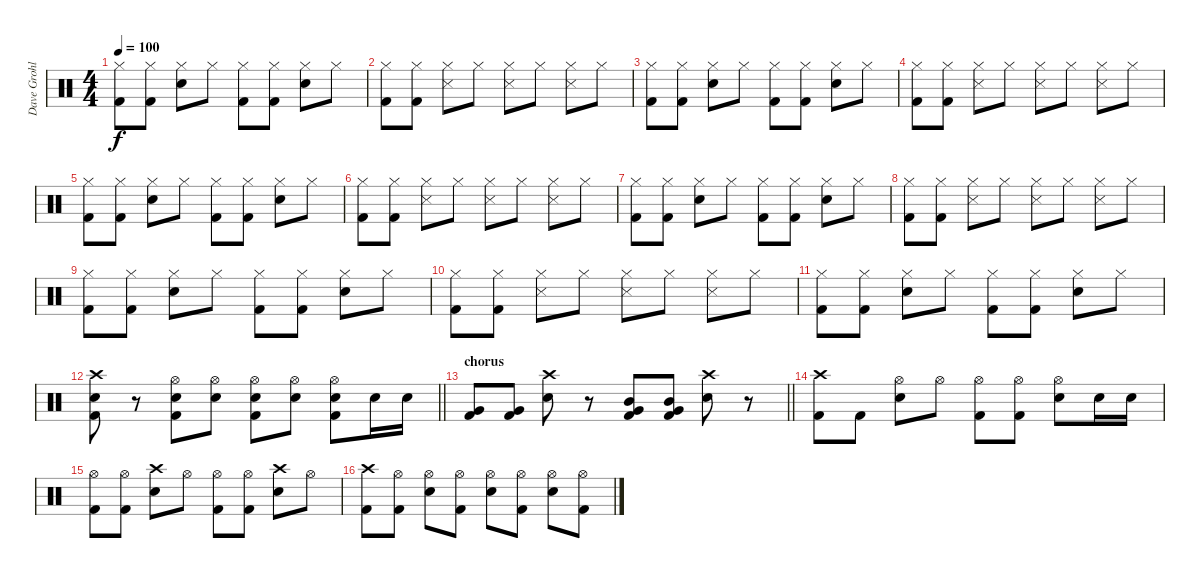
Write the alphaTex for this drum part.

\track ("Dave Grohl" "Dave Grohl") {instrument percussion}
\staff {score}
\articulation defaults
\ts (4 4)
\tempo 100
\clef neutral
\ks c
("Hi-Hat (closed)" "Kick (hit) 2").8{dy f} ("Hi-Hat (closed)" "Kick (hit) 2").8 ("Hi-Hat (closed)" "Snare (hit) 2").8 "Hi-Hat (closed)".8 ("Hi-Hat (closed)" "Kick (hit) 2").8 ("Hi-Hat (closed)" "Kick (hit) 2").8 ("Hi-Hat (closed)" "Snare (hit) 2").8 "Hi-Hat (closed)".8 |
("Hi-Hat (closed)" "Kick (hit) 2").8 ("Hi-Hat (closed)" "Kick (hit) 2").8 ("Hi-Hat (closed)" "Snare (side stick) 3").8 "Hi-Hat (closed)".8 ("Hi-Hat (closed)" "Snare (side stick) 3").8 "Hi-Hat (closed)".8 ("Hi-Hat (closed)" "Snare (side stick) 3").8 "Hi-Hat (closed)".8 |
("Hi-Hat (closed)" "Kick (hit) 2").8 ("Hi-Hat (closed)" "Kick (hit) 2").8 ("Hi-Hat (closed)" "Snare (hit) 2").8 "Hi-Hat (closed)".8 ("Hi-Hat (closed)" "Kick (hit) 2").8 ("Hi-Hat (closed)" "Kick (hit) 2").8 ("Hi-Hat (closed)" "Snare (hit) 2").8 "Hi-Hat (closed)".8 |
("Hi-Hat (closed)" "Kick (hit) 2").8 ("Hi-Hat (closed)" "Kick (hit) 2").8 ("Hi-Hat (closed)" "Snare (side stick) 3").8 "Hi-Hat (closed)".8 ("Hi-Hat (closed)" "Snare (side stick) 3").8 "Hi-Hat (closed)".8 ("Hi-Hat (closed)" "Snare (side stick) 3").8 "Hi-Hat (closed)".8 |
("Hi-Hat (closed)" "Kick (hit) 2").8 ("Hi-Hat (closed)" "Kick (hit) 2").8 ("Hi-Hat (closed)" "Snare (hit) 2").8 "Hi-Hat (closed)".8 ("Hi-Hat (closed)" "Kick (hit) 2").8 ("Hi-Hat (closed)" "Kick (hit) 2").8 ("Hi-Hat (closed)" "Snare (hit) 2").8 "Hi-Hat (closed)".8 |
("Hi-Hat (closed)" "Kick (hit) 2").8 ("Hi-Hat (closed)" "Kick (hit) 2").8 ("Hi-Hat (closed)" "Snare (side stick) 3").8 "Hi-Hat (closed)".8 ("Hi-Hat (closed)" "Snare (side stick) 3").8 "Hi-Hat (closed)".8 ("Hi-Hat (closed)" "Snare (side stick) 3").8 "Hi-Hat (closed)".8 |
("Hi-Hat (closed)" "Kick (hit) 2").8 ("Hi-Hat (closed)" "Kick (hit) 2").8 ("Hi-Hat (closed)" "Snare (hit) 2").8 "Hi-Hat (closed)".8 ("Hi-Hat (closed)" "Kick (hit) 2").8 ("Hi-Hat (closed)" "Kick (hit) 2").8 ("Hi-Hat (closed)" "Snare (hit) 2").8 "Hi-Hat (closed)".8 |
("Hi-Hat (closed)" "Kick (hit) 2").8 ("Hi-Hat (closed)" "Kick (hit) 2").8 ("Hi-Hat (closed)" "Snare (side stick) 3").8 "Hi-Hat (closed)".8 ("Hi-Hat (closed)" "Snare (side stick) 3").8 "Hi-Hat (closed)".8 ("Hi-Hat (closed)" "Snare (side stick) 3").8 "Hi-Hat (closed)".8 |
("Hi-Hat (closed)" "Kick (hit) 2").8 ("Hi-Hat (closed)" "Kick (hit) 2").8 ("Hi-Hat (closed)" "Snare (hit) 2").8 "Hi-Hat (closed)".8 ("Hi-Hat (closed)" "Kick (hit) 2").8 ("Hi-Hat (closed)" "Kick (hit) 2").8 ("Hi-Hat (closed)" "Snare (hit) 2").8 "Hi-Hat (closed)".8 |
("Hi-Hat (closed)" "Kick (hit) 2").8 ("Hi-Hat (closed)" "Kick (hit) 2").8 ("Hi-Hat (closed)" "Snare (side stick) 3").8 "Hi-Hat (closed)".8 ("Hi-Hat (closed)" "Snare (side stick) 3").8 "Hi-Hat (closed)".8 ("Hi-Hat (closed)" "Snare (side stick) 3").8 "Hi-Hat (closed)".8 |
("Hi-Hat (closed)" "Kick (hit) 2").8 ("Hi-Hat (closed)" "Kick (hit) 2").8 ("Hi-Hat (closed)" "Snare (hit) 2").8 "Hi-Hat (closed)".8 ("Hi-Hat (closed)" "Kick (hit) 2").8 ("Hi-Hat (closed)" "Kick (hit) 2").8 ("Hi-Hat (closed)" "Snare (hit) 2").8 "Hi-Hat (closed)".8 |
\barLineRight lightlight
("Crash high (hit)" "Snare (hit) 2" "Kick (hit) 2").8 r.8 ("Snare (hit) 2" "Hi-Hat (open)" "Kick (hit) 2").8 ("Snare (hit) 2" "Hi-Hat (open)").8 ("Snare (hit) 2" "Hi-Hat (open)" "Kick (hit) 2").8 ("Snare (hit) 2" "Hi-Hat (open)").8 ("Snare (hit) 2" "Hi-Hat (open)" "Kick (hit) 2").8 "Snare (hit) 2".16 "Snare (hit) 2".16 |
\section ("" "chorus")
\barLineRight lightlight
("Very Low Tom (hit)" "Kick (hit) 2").8 ("Very Low Tom (hit)" "Kick (hit) 2").8 ("Crash high (hit)" "Snare (hit) 2").8 r.8 ("Mid Tom (hit)" "Very Low Tom (hit)" "Kick (hit) 2").8 ("Mid Tom (hit)" "Very Low Tom (hit)" "Kick (hit) 2").8 ("Crash high (hit)" "Snare (hit) 2").8 r.8 |
("Crash high (hit)" "Kick (hit) 2").8 "Kick (hit) 2".8 ("Hi-Hat (open)" "Snare (hit) 2").8 "Hi-Hat (open)".8 ("Hi-Hat (open)" "Kick (hit) 2").8 ("Hi-Hat (open)" "Kick (hit) 2").8 ("Hi-Hat (open)" "Snare (hit) 2").8 "Snare (hit) 2".16 "Snare (hit) 2".16 |
("Hi-Hat (open)" "Kick (hit) 2").8 ("Hi-Hat (open)" "Kick (hit) 2").8 ("Crash high (hit)" "Snare (hit) 2").8 "Hi-Hat (open)".8 ("Hi-Hat (open)" "Kick (hit) 2").8 ("Hi-Hat (open)" "Kick (hit) 2").8 ("Crash high (hit)" "Snare (hit) 2").8 "Hi-Hat (open)".8 |
("Crash high (hit)" "Kick (hit) 2").8 ("Hi-Hat (open)" "Kick (hit) 2").8 ("Hi-Hat (open)" "Snare (hit) 2").8 ("Hi-Hat (open)" "Kick (hit) 2").8 ("Hi-Hat (open)" "Snare (hit) 2").8 ("Hi-Hat (open)" "Kick (hit) 2").8 ("Hi-Hat (open)" "Snare (hit) 2").8 ("Hi-Hat (open)" "Kick (hit) 2").8
